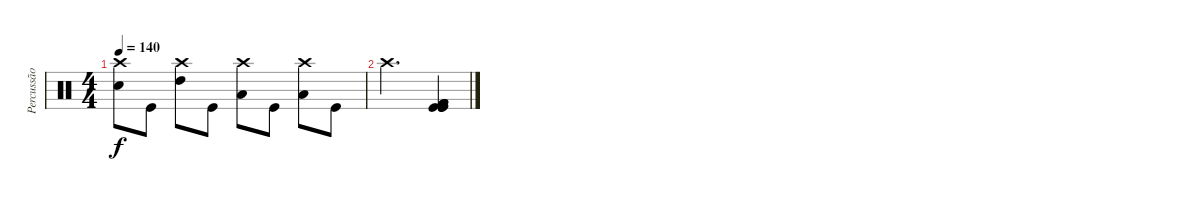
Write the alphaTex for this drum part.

\track ("Percussão" "Percussão") {instrument percussion}
\staff {score}
\articulation defaults
\ts (4 4)
\tempo 140
\clef neutral
\ks c
("Crash high (hit)" "Electric Snare (hit)").8{dy f} "Kick (hit)".8 ("Crash high (hit)" "High Tom (hit)").8 "Kick (hit)".8 ("Crash high (hit)" "Low Tom (hit)").8 "Kick (hit)".8 ("Crash high (hit)" "Low Floor Tom (hit)").8 "Kick (hit)".8 |
"Crash high (hit)".2{d} ("Kick (hit)" "Kick (hit) 2" "Kick (hit)" "Kick (hit) 2" "Kick (hit)" "Kick (hit) 2").4
